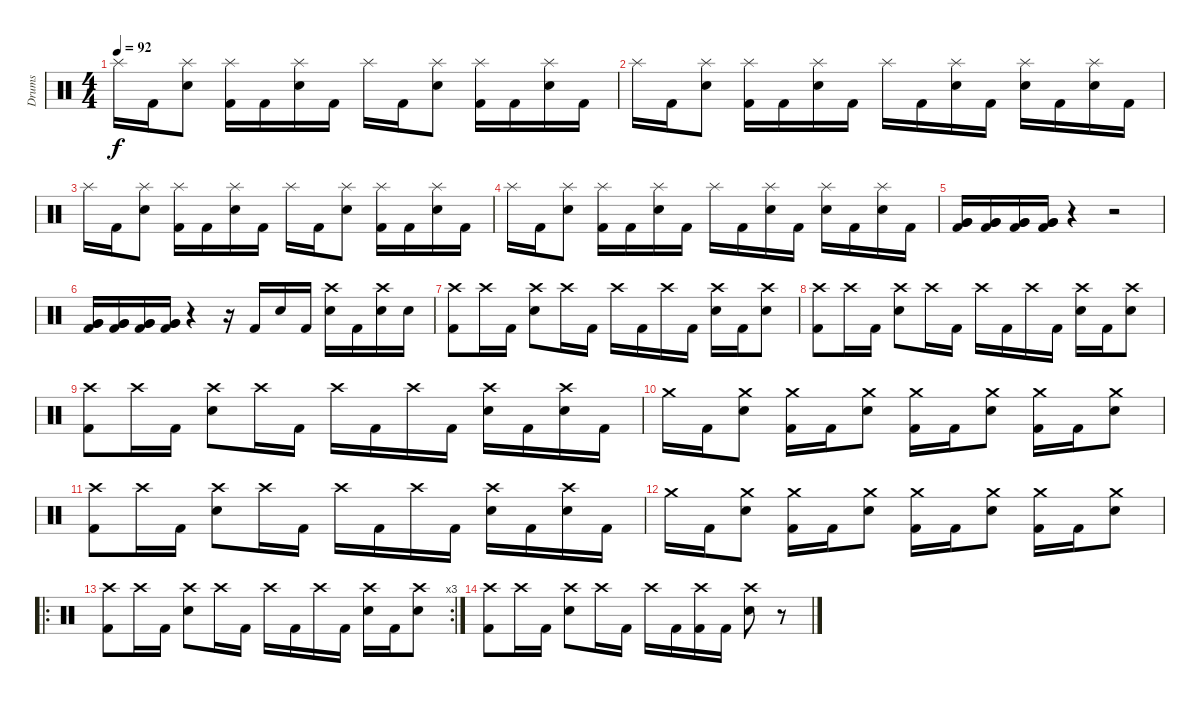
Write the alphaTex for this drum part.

\track ("Drums" "Drums") {instrument percussion}
\staff {score}
\articulation defaults
\ts (4 4)
\tempo 92
\clef neutral
\ks c "Splash (hit)".16{dy f} "Kick (hit) 2".16
("Splash (hit)" "Electric Snare (hit)").8 ("Splash (hit)" "Kick (hit) 2").16 "Kick (hit) 2".16 ("Splash (hit)" "Electric Snare (hit)").16 "Kick (hit) 2".16 "Splash (hit)".16 "Kick (hit) 2".16 ("Splash (hit)" "Electric Snare (hit)").8 ("Splash (hit)" "Kick (hit) 2").16 "Kick (hit) 2".16 ("Splash (hit)" "Electric Snare (hit)").16 "Kick (hit) 2".16 |
"Splash (hit)".16 "Kick (hit) 2".16 ("Splash (hit)" "Electric Snare (hit)").8 ("Splash (hit)" "Kick (hit) 2").16 "Kick (hit) 2".16 ("Splash (hit)" "Electric Snare (hit)").16 "Kick (hit) 2".16 "Splash (hit)".16 "Kick (hit) 2".16 ("Splash (hit)" "Electric Snare (hit)").16 "Kick (hit) 2".16 ("Splash (hit)" "Electric Snare (hit)").16 "Kick (hit) 2".16 ("Splash (hit)" "Electric Snare (hit)").16 "Kick (hit) 2".16 |
"Splash (hit)".16 "Kick (hit) 2".16 ("Splash (hit)" "Electric Snare (hit)").8 ("Splash (hit)" "Kick (hit) 2").16 "Kick (hit) 2".16 ("Splash (hit)" "Electric Snare (hit)").16 "Kick (hit) 2".16 "Splash (hit)".16 "Kick (hit) 2".16 ("Splash (hit)" "Electric Snare (hit)").8 ("Splash (hit)" "Kick (hit) 2").16 "Kick (hit) 2".16 ("Splash (hit)" "Electric Snare (hit)").16 "Kick (hit) 2".16 |
"Splash (hit)".16 "Kick (hit) 2".16 ("Splash (hit)" "Electric Snare (hit)").8 ("Splash (hit)" "Kick (hit) 2").16 "Kick (hit) 2".16 ("Splash (hit)" "Electric Snare (hit)").16 "Kick (hit) 2".16 "Splash (hit)".16 "Kick (hit) 2".16 ("Splash (hit)" "Electric Snare (hit)").16 "Kick (hit) 2".16 ("Splash (hit)" "Electric Snare (hit)").16 "Kick (hit) 2".16 ("Splash (hit)" "Electric Snare (hit)").16 "Kick (hit) 2".16 |
("Very Low Tom (hit)" "Very Low Tom (hit)" "Kick (hit) 2").16 ("Very Low Tom (hit)" "Very Low Tom (hit)" "Kick (hit) 2").16 ("Very Low Tom (hit)" "Very Low Tom (hit)" "Kick (hit) 2").16 ("Very Low Tom (hit)" "Very Low Tom (hit)" "Kick (hit) 2").16 r.4 r.2 |
("Very Low Tom (hit)" "Very Low Tom (hit)" "Kick (hit) 2").16 ("Very Low Tom (hit)" "Very Low Tom (hit)" "Kick (hit) 2").16 ("Very Low Tom (hit)" "Very Low Tom (hit)" "Kick (hit) 2").16 ("Very Low Tom (hit)" "Very Low Tom (hit)" "Kick (hit) 2").16 r.4 r.16 "Kick (hit) 2".16 "Electric Snare (hit)".16 "Kick (hit) 2".16 ("Crash high (hit)" "Electric Snare (hit)").16 "Kick (hit) 2".16 ("Crash high (hit)" "Electric Snare (hit)").16 "Electric Snare (hit)".16 |
("Crash high (hit)" "Kick (hit) 2").8 "Crash high (hit)".16 "Kick (hit) 2".16 ("Crash high (hit)" "Electric Snare (hit)").8 "Crash high (hit)".16 "Kick (hit) 2".16 "Crash high (hit)".16 "Kick (hit) 2".16 "Crash high (hit)".16 "Kick (hit) 2".16 ("Crash high (hit)" "Electric Snare (hit)").16 "Kick (hit) 2".16 ("Crash high (hit)" "Electric Snare (hit)").8 |
("Crash high (hit)" "Kick (hit) 2").8 "Crash high (hit)".16 "Kick (hit) 2".16 ("Crash high (hit)" "Electric Snare (hit)").8 "Crash high (hit)".16 "Kick (hit) 2".16 "Crash high (hit)".16 "Kick (hit) 2".16 "Crash high (hit)".16 "Kick (hit) 2".16 ("Crash high (hit)" "Electric Snare (hit)").16 "Kick (hit) 2".16 ("Crash high (hit)" "Electric Snare (hit)").8 |
("Crash high (hit)" "Kick (hit) 2").8 "Crash high (hit)".16 "Kick (hit) 2".16 ("Crash high (hit)" "Electric Snare (hit)").8 "Crash high (hit)".16 "Kick (hit) 2".16 "Crash high (hit)".16 "Kick (hit) 2".16 "Crash high (hit)".16 "Kick (hit) 2".16 ("Crash high (hit)" "Electric Snare (hit)").16 "Kick (hit) 2".16 ("Crash high (hit)" "Electric Snare (hit)").16 "Kick (hit) 2".16 |
"Crash medium (hit)".16 "Kick (hit) 2".16 ("Crash medium (hit)" "Electric Snare (hit)").8 ("Crash medium (hit)" "Kick (hit) 2").16 "Kick (hit) 2".16 ("Crash medium (hit)" "Electric Snare (hit)").8 ("Crash medium (hit)" "Kick (hit) 2").16 "Kick (hit) 2".16 ("Crash medium (hit)" "Electric Snare (hit)").8 ("Crash medium (hit)" "Kick (hit) 2").16 "Kick (hit) 2".16 ("Crash medium (hit)" "Electric Snare (hit)").8 |
("Crash high (hit)" "Kick (hit) 2").8 "Crash high (hit)".16 "Kick (hit) 2".16 ("Crash high (hit)" "Electric Snare (hit)").8 "Crash high (hit)".16 "Kick (hit) 2".16 "Crash high (hit)".16 "Kick (hit) 2".16 "Crash high (hit)".16 "Kick (hit) 2".16 ("Crash high (hit)" "Electric Snare (hit)").16 "Kick (hit) 2".16 ("Crash high (hit)" "Electric Snare (hit)").16 "Kick (hit) 2".16 |
"Crash medium (hit)".16 "Kick (hit) 2".16 ("Crash medium (hit)" "Electric Snare (hit)").8 ("Crash medium (hit)" "Kick (hit) 2").16 "Kick (hit) 2".16 ("Crash medium (hit)" "Electric Snare (hit)").8 ("Crash medium (hit)" "Kick (hit) 2").16 "Kick (hit) 2".16 ("Crash medium (hit)" "Electric Snare (hit)").8 ("Crash medium (hit)" "Kick (hit) 2").16 "Kick (hit) 2".16 ("Crash medium (hit)" "Electric Snare (hit)").8 |
\ro
\rc 3
("Crash high (hit)" "Kick (hit) 2").8 "Crash high (hit)".16 "Kick (hit) 2".16 ("Crash high (hit)" "Electric Snare (hit)").8 "Crash high (hit)".16 "Kick (hit) 2".16 "Crash high (hit)".16 "Kick (hit) 2".16 "Crash high (hit)".16 "Kick (hit) 2".16 ("Crash high (hit)" "Electric Snare (hit)").16 "Kick (hit) 2".16 ("Crash high (hit)" "Electric Snare (hit)").8 |
("Crash high (hit)" "Kick (hit) 2").8 "Crash high (hit)".16 "Kick (hit) 2".16 ("Crash high (hit)" "Electric Snare (hit)").8 "Crash high (hit)".16 "Kick (hit) 2".16 "Crash high (hit)".16 "Kick (hit) 2".16 ("Crash high (hit)" "Kick (hit) 2").16 "Kick (hit) 2".16 ("Crash high (hit)" "Electric Snare (hit)").8 r.8
